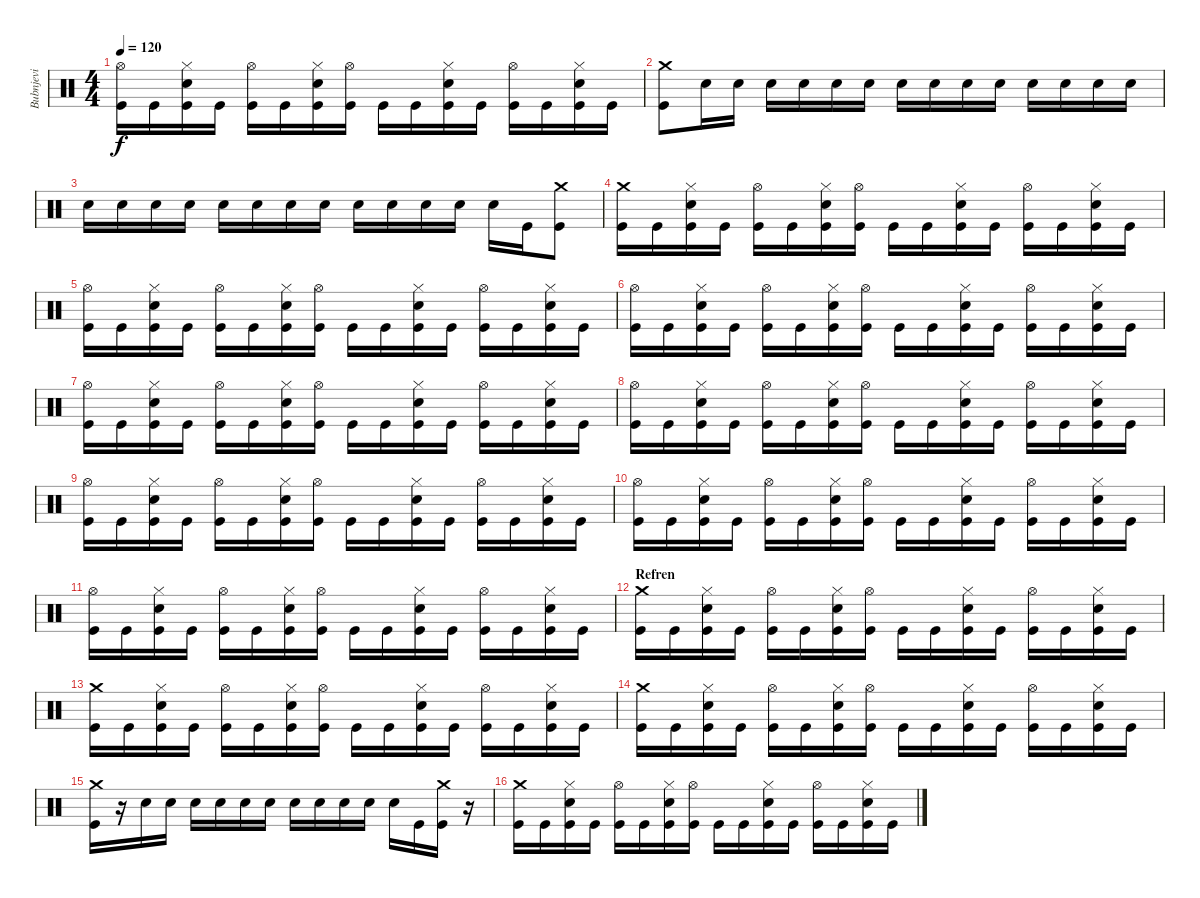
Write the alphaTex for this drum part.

\track ("Bubnjevi" "Bubnjevi") {instrument percussion}
\staff {score}
\articulation defaults
\ts (4 4)
\tempo 120
\clef neutral
\ks c
("Hi-Hat (open)" "Kick (hit)").16{dy f} "Kick (hit)".16 ("Electric Snare (hit)" "Hi-Hat (closed)" "Kick (hit)").16 "Kick (hit)".16 ("Hi-Hat (open)" "Kick (hit)").16 "Kick (hit)".16 ("Electric Snare (hit)" "Hi-Hat (closed)" "Kick (hit)").16 ("Hi-Hat (open)" "Kick (hit)").16 "Kick (hit)".16 "Kick (hit)".16 ("Electric Snare (hit)" "Hi-Hat (closed)" "Kick (hit)").16 "Kick (hit)".16 ("Hi-Hat (open)" "Kick (hit)").16 "Kick (hit)".16 ("Electric Snare (hit)" "Hi-Hat (closed)" "Kick (hit)").16 "Kick (hit)".16 |
("Crash medium (hit)" "Kick (hit)").8 "Electric Snare (hit)".16 "Electric Snare (hit)".16 "Electric Snare (hit)".16 "Electric Snare (hit)".16 "Electric Snare (hit)".16 "Electric Snare (hit)".16 "Electric Snare (hit)".16 "Electric Snare (hit)".16 "Electric Snare (hit)".16 "Electric Snare (hit)".16 "Electric Snare (hit)".16 "Electric Snare (hit)".16 "Electric Snare (hit)".16 "Electric Snare (hit)".16 |
"Electric Snare (hit)".16 "Electric Snare (hit)".16 "Electric Snare (hit)".16 "Electric Snare (hit)".16 "Electric Snare (hit)".16 "Electric Snare (hit)".16 "Electric Snare (hit)".16 "Electric Snare (hit)".16 "Electric Snare (hit)".16 "Electric Snare (hit)".16 "Electric Snare (hit)".16 "Electric Snare (hit)".16 "Electric Snare (hit)".16 "Kick (hit)".16 ("Crash medium (hit)" "Kick (hit)").8 |
("Crash medium (hit)" "Kick (hit)").16 "Kick (hit)".16 ("Electric Snare (hit)" "Hi-Hat (closed)" "Kick (hit)").16 "Kick (hit)".16 ("Hi-Hat (open)" "Kick (hit)").16 "Kick (hit)".16 ("Electric Snare (hit)" "Hi-Hat (closed)" "Kick (hit)").16 ("Hi-Hat (open)" "Kick (hit)").16 "Kick (hit)".16 "Kick (hit)".16 ("Electric Snare (hit)" "Hi-Hat (closed)" "Kick (hit)").16 "Kick (hit)".16 ("Hi-Hat (open)" "Kick (hit)").16 "Kick (hit)".16 ("Electric Snare (hit)" "Hi-Hat (closed)" "Kick (hit)").16 "Kick (hit)".16 |
("Hi-Hat (open)" "Kick (hit)").16 "Kick (hit)".16 ("Electric Snare (hit)" "Hi-Hat (closed)" "Kick (hit)").16 "Kick (hit)".16 ("Hi-Hat (open)" "Kick (hit)").16 "Kick (hit)".16 ("Electric Snare (hit)" "Hi-Hat (closed)" "Kick (hit)").16 ("Hi-Hat (open)" "Kick (hit)").16 "Kick (hit)".16 "Kick (hit)".16 ("Electric Snare (hit)" "Hi-Hat (closed)" "Kick (hit)").16 "Kick (hit)".16 ("Hi-Hat (open)" "Kick (hit)").16 "Kick (hit)".16 ("Electric Snare (hit)" "Hi-Hat (closed)" "Kick (hit)").16 "Kick (hit)".16 |
("Hi-Hat (open)" "Kick (hit)").16 "Kick (hit)".16 ("Electric Snare (hit)" "Hi-Hat (closed)" "Kick (hit)").16 "Kick (hit)".16 ("Hi-Hat (open)" "Kick (hit)").16 "Kick (hit)".16 ("Electric Snare (hit)" "Hi-Hat (closed)" "Kick (hit)").16 ("Hi-Hat (open)" "Kick (hit)").16 "Kick (hit)".16 "Kick (hit)".16 ("Electric Snare (hit)" "Hi-Hat (closed)" "Kick (hit)").16 "Kick (hit)".16 ("Hi-Hat (open)" "Kick (hit)").16 "Kick (hit)".16 ("Electric Snare (hit)" "Hi-Hat (closed)" "Kick (hit)").16 "Kick (hit)".16 |
("Hi-Hat (open)" "Kick (hit)").16 "Kick (hit)".16 ("Electric Snare (hit)" "Hi-Hat (closed)" "Kick (hit)").16 "Kick (hit)".16 ("Hi-Hat (open)" "Kick (hit)").16 "Kick (hit)".16 ("Electric Snare (hit)" "Hi-Hat (closed)" "Kick (hit)").16 ("Hi-Hat (open)" "Kick (hit)").16 "Kick (hit)".16 "Kick (hit)".16 ("Electric Snare (hit)" "Hi-Hat (closed)" "Kick (hit)").16 "Kick (hit)".16 ("Hi-Hat (open)" "Kick (hit)").16 "Kick (hit)".16 ("Electric Snare (hit)" "Hi-Hat (closed)" "Kick (hit)").16 "Kick (hit)".16 |
("Hi-Hat (open)" "Kick (hit)").16 "Kick (hit)".16 ("Electric Snare (hit)" "Hi-Hat (closed)" "Kick (hit)").16 "Kick (hit)".16 ("Hi-Hat (open)" "Kick (hit)").16 "Kick (hit)".16 ("Electric Snare (hit)" "Hi-Hat (closed)" "Kick (hit)").16 ("Hi-Hat (open)" "Kick (hit)").16 "Kick (hit)".16 "Kick (hit)".16 ("Electric Snare (hit)" "Hi-Hat (closed)" "Kick (hit)").16 "Kick (hit)".16 ("Hi-Hat (open)" "Kick (hit)").16 "Kick (hit)".16 ("Electric Snare (hit)" "Hi-Hat (closed)" "Kick (hit)").16 "Kick (hit)".16 |
("Hi-Hat (open)" "Kick (hit)").16 "Kick (hit)".16 ("Electric Snare (hit)" "Hi-Hat (closed)" "Kick (hit)").16 "Kick (hit)".16 ("Hi-Hat (open)" "Kick (hit)").16 "Kick (hit)".16 ("Electric Snare (hit)" "Hi-Hat (closed)" "Kick (hit)").16 ("Hi-Hat (open)" "Kick (hit)").16 "Kick (hit)".16 "Kick (hit)".16 ("Electric Snare (hit)" "Hi-Hat (closed)" "Kick (hit)").16 "Kick (hit)".16 ("Hi-Hat (open)" "Kick (hit)").16 "Kick (hit)".16 ("Electric Snare (hit)" "Hi-Hat (closed)" "Kick (hit)").16 "Kick (hit)".16 |
("Hi-Hat (open)" "Kick (hit)").16 "Kick (hit)".16 ("Electric Snare (hit)" "Hi-Hat (closed)" "Kick (hit)").16 "Kick (hit)".16 ("Hi-Hat (open)" "Kick (hit)").16 "Kick (hit)".16 ("Electric Snare (hit)" "Hi-Hat (closed)" "Kick (hit)").16 ("Hi-Hat (open)" "Kick (hit)").16 "Kick (hit)".16 "Kick (hit)".16 ("Electric Snare (hit)" "Hi-Hat (closed)" "Kick (hit)").16 "Kick (hit)".16 ("Hi-Hat (open)" "Kick (hit)").16 "Kick (hit)".16 ("Electric Snare (hit)" "Hi-Hat (closed)" "Kick (hit)").16 "Kick (hit)".16 |
("Hi-Hat (open)" "Kick (hit)").16 "Kick (hit)".16 ("Electric Snare (hit)" "Hi-Hat (closed)" "Kick (hit)").16 "Kick (hit)".16 ("Hi-Hat (open)" "Kick (hit)").16 "Kick (hit)".16 ("Electric Snare (hit)" "Hi-Hat (closed)" "Kick (hit)").16 ("Hi-Hat (open)" "Kick (hit)").16 "Kick (hit)".16 "Kick (hit)".16 ("Electric Snare (hit)" "Hi-Hat (closed)" "Kick (hit)").16 "Kick (hit)".16 ("Hi-Hat (open)" "Kick (hit)").16 "Kick (hit)".16 ("Electric Snare (hit)" "Hi-Hat (closed)" "Kick (hit)").16 "Kick (hit)".16 |
\section ("" "Refren")
("Crash medium (hit)" "Kick (hit)").16 "Kick (hit)".16 ("Electric Snare (hit)" "Hi-Hat (closed)" "Kick (hit)").16 "Kick (hit)".16 ("Hi-Hat (open)" "Kick (hit)").16 "Kick (hit)".16 ("Electric Snare (hit)" "Hi-Hat (closed)" "Kick (hit)").16 ("Hi-Hat (open)" "Kick (hit)").16 "Kick (hit)".16 "Kick (hit)".16 ("Electric Snare (hit)" "Hi-Hat (closed)" "Kick (hit)").16 "Kick (hit)".16 ("Hi-Hat (open)" "Kick (hit)").16 "Kick (hit)".16 ("Electric Snare (hit)" "Hi-Hat (closed)" "Kick (hit)").16 "Kick (hit)".16 |
("Crash medium (hit)" "Kick (hit)").16 "Kick (hit)".16 ("Electric Snare (hit)" "Hi-Hat (closed)" "Kick (hit)").16 "Kick (hit)".16 ("Hi-Hat (open)" "Kick (hit)").16 "Kick (hit)".16 ("Electric Snare (hit)" "Hi-Hat (closed)" "Kick (hit)").16 ("Hi-Hat (open)" "Kick (hit)").16 "Kick (hit)".16 "Kick (hit)".16 ("Electric Snare (hit)" "Hi-Hat (closed)" "Kick (hit)").16 "Kick (hit)".16 ("Hi-Hat (open)" "Kick (hit)").16 "Kick (hit)".16 ("Electric Snare (hit)" "Hi-Hat (closed)" "Kick (hit)").16 "Kick (hit)".16 |
("Crash medium (hit)" "Kick (hit)").16 "Kick (hit)".16 ("Electric Snare (hit)" "Hi-Hat (closed)" "Kick (hit)").16 "Kick (hit)".16 ("Hi-Hat (open)" "Kick (hit)").16 "Kick (hit)".16 ("Electric Snare (hit)" "Hi-Hat (closed)" "Kick (hit)").16 ("Hi-Hat (open)" "Kick (hit)").16 "Kick (hit)".16 "Kick (hit)".16 ("Electric Snare (hit)" "Hi-Hat (closed)" "Kick (hit)").16 "Kick (hit)".16 ("Hi-Hat (open)" "Kick (hit)").16 "Kick (hit)".16 ("Electric Snare (hit)" "Hi-Hat (closed)" "Kick (hit)").16 "Kick (hit)".16 |
("Crash medium (hit)" "Kick (hit)").16 r.16 "Electric Snare (hit)".16 "Electric Snare (hit)".16 "Electric Snare (hit)".16 "Electric Snare (hit)".16 "Electric Snare (hit)".16 "Electric Snare (hit)".16 "Electric Snare (hit)".16 "Electric Snare (hit)".16 "Electric Snare (hit)".16 "Electric Snare (hit)".16 "Electric Snare (hit)".16 "Kick (hit)".16 ("Crash medium (hit)" "Kick (hit)").16 r.16 |
("Crash medium (hit)" "Kick (hit)").16 "Kick (hit)".16 ("Electric Snare (hit)" "Hi-Hat (closed)" "Kick (hit)").16 "Kick (hit)".16 ("Hi-Hat (open)" "Kick (hit)").16 "Kick (hit)".16 ("Electric Snare (hit)" "Hi-Hat (closed)" "Kick (hit)").16 ("Hi-Hat (open)" "Kick (hit)").16 "Kick (hit)".16 "Kick (hit)".16 ("Electric Snare (hit)" "Hi-Hat (closed)" "Kick (hit)").16 "Kick (hit)".16 ("Hi-Hat (open)" "Kick (hit)").16 "Kick (hit)".16 ("Electric Snare (hit)" "Hi-Hat (closed)" "Kick (hit)").16 "Kick (hit)".16
